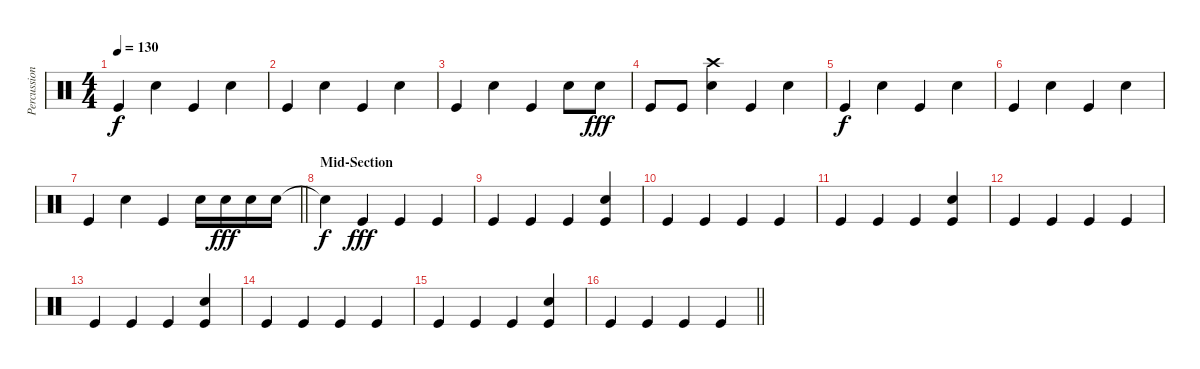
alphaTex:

\track ("Percussion" "Percussion") {instrument percussion}
\staff {score}
\articulation defaults
\ts (4 4)
\tempo 130
\clef neutral
\ks c "Kick (hit)".4{dy f} "Snare (hit) 2".4 "Kick (hit)".4 "Snare (hit) 2".4
|
"Kick (hit)".4 "Snare (hit) 2".4 "Kick (hit)".4 "Snare (hit) 2".4 |
"Kick (hit)".4 "Snare (hit) 2".4 "Kick (hit)".4 "Snare (hit) 2".8 "Snare (hit) 2".8{dy fff} |
"Kick (hit)".8 "Kick (hit)".8 ("Crash high (hit)" "Snare (hit) 2").4 "Kick (hit)".4 "Snare (hit) 2".4 |
"Kick (hit)".4{dy f} "Snare (hit) 2".4 "Kick (hit)".4 "Snare (hit) 2".4 |
"Kick (hit)".4 "Snare (hit) 2".4 "Kick (hit)".4 "Snare (hit) 2".4 |
\barLineRight lightlight "Kick (hit)".4 "Snare (hit) 2".4 "Kick (hit)".4 "Snare (hit) 2".16 "Snare (hit) 2".16{dy fff} "Snare (hit) 2".16 "Snare (hit) 2".16
|
\section ("" "Mid-Section")
"Snare (hit)"{t}.4{dy f} "Kick (hit)".4{dy fff} "Kick (hit)".4 "Kick (hit)".4 |
"Kick (hit)".4 "Kick (hit)".4 "Kick (hit)".4 ("Snare (hit) 2" "Kick (hit)").4 |
"Kick (hit)".4 "Kick (hit)".4 "Kick (hit)".4 "Kick (hit)".4 |
"Kick (hit)".4 "Kick (hit)".4 "Kick (hit)".4 ("Snare (hit) 2" "Kick (hit)").4 |
"Kick (hit)".4 "Kick (hit)".4 "Kick (hit)".4 "Kick (hit)".4 |
"Kick (hit)".4 "Kick (hit)".4 "Kick (hit)".4 ("Snare (hit) 2" "Kick (hit)").4 |
"Kick (hit)".4 "Kick (hit)".4 "Kick (hit)".4 "Kick (hit)".4 |
"Kick (hit)".4 "Kick (hit)".4 "Kick (hit)".4 ("Snare (hit) 2" "Kick (hit)").4 |
\barLineRight lightlight "Kick (hit)".4 "Kick (hit)".4 "Kick (hit)".4 "Kick (hit)".4
